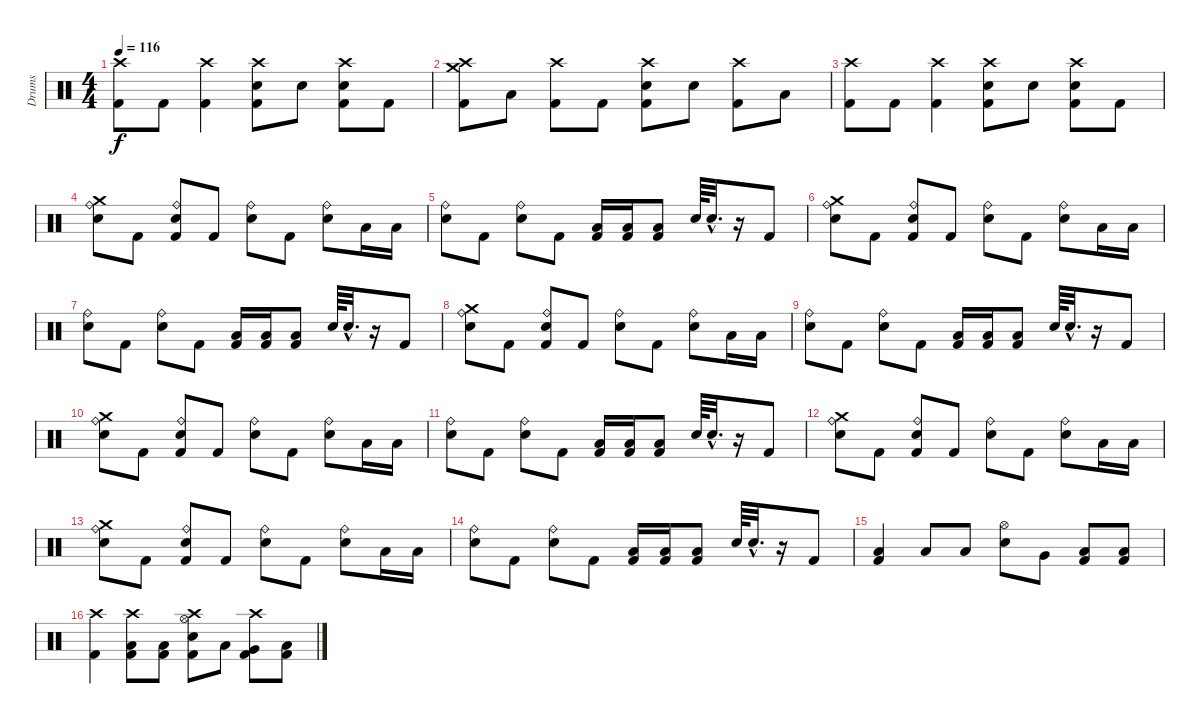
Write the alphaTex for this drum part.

\track ("Drums" "Drums") {instrument percussion}
\staff {score}
\articulation defaults
\ts (4 4)
\tempo 116
\clef neutral
\ks c
("Crash high (hit)" "Kick (hit) 2").8{dy f} "Kick (hit) 2".8 ("Crash high (hit)" "Kick (hit) 2").4 ("Crash high (hit)" "Electric Snare (hit)" "Kick (hit) 2").8 "Electric Snare (hit)".8 ("Crash high (hit)" "Electric Snare (hit)" "Kick (hit) 2").8 "Kick (hit) 2".8 |
("Crash medium (hit)" "Crash high (hit)" "Kick (hit) 2").8 "Low Floor Tom (hit)".8 ("Crash high (hit)" "Kick (hit) 2").8 "Kick (hit) 2".8 ("Crash high (hit)" "Electric Snare (hit)" "Kick (hit) 2").8 "Electric Snare (hit)".8 ("Crash high (hit)" "Kick (hit) 2").8 "Low Floor Tom (hit)".8 |
("Crash high (hit)" "Kick (hit) 2").8 "Kick (hit) 2".8 ("Crash high (hit)" "Kick (hit) 2").4 ("Crash high (hit)" "Electric Snare (hit)" "Kick (hit) 2").8 "Electric Snare (hit)".8 ("Crash high (hit)" "Electric Snare (hit)" "Kick (hit) 2").8 "Kick (hit) 2".8 |
("Crash medium (hit)" "Ride (bell)" "Snare (hit) 2").8 "Kick (hit) 2".8 ("Ride (bell)" "Snare (hit) 2" "Kick (hit) 2").8 "Kick (hit) 2".8 ("Ride (bell)" "Snare (hit) 2").8 "Kick (hit) 2".8 ("Ride (bell)" "Snare (hit) 2").8 "Low Floor Tom (hit)".16 "Low Floor Tom (hit)".16 |
("Ride (bell)" "Snare (hit) 2").8 "Kick (hit) 2".8 ("Ride (bell)" "Snare (hit) 2").8 "Kick (hit) 2".8 ("Low Floor Tom (hit)" "Kick (hit) 2").16 ("Low Floor Tom (hit)" "Kick (hit) 2").16 ("Low Floor Tom (hit)" "Kick (hit) 2").8 "Snare (hit) 2".64 "Electric Snare (hit)"{hac}.32{d} r.16 "Kick (hit) 2".8 |
("Crash medium (hit)" "Ride (bell)" "Snare (hit) 2").8 "Kick (hit) 2".8 ("Ride (bell)" "Snare (hit) 2" "Kick (hit) 2").8 "Kick (hit) 2".8 ("Ride (bell)" "Snare (hit) 2").8 "Kick (hit) 2".8 ("Ride (bell)" "Snare (hit) 2").8 "Low Floor Tom (hit)".16 "Low Floor Tom (hit)".16 |
("Ride (bell)" "Snare (hit) 2").8 "Kick (hit) 2".8 ("Ride (bell)" "Snare (hit) 2").8 "Kick (hit) 2".8 ("Low Floor Tom (hit)" "Kick (hit) 2").16 ("Low Floor Tom (hit)" "Kick (hit) 2").16 ("Low Floor Tom (hit)" "Kick (hit) 2").8 "Snare (hit) 2".64 "Electric Snare (hit)"{hac}.32{d} r.16 "Kick (hit) 2".8 |
("Crash medium (hit)" "Ride (bell)" "Snare (hit) 2").8 "Kick (hit) 2".8 ("Ride (bell)" "Snare (hit) 2" "Kick (hit) 2").8 "Kick (hit) 2".8 ("Ride (bell)" "Snare (hit) 2").8 "Kick (hit) 2".8 ("Ride (bell)" "Snare (hit) 2").8 "Low Floor Tom (hit)".16 "Low Floor Tom (hit)".16 |
("Ride (bell)" "Snare (hit) 2").8 "Kick (hit) 2".8 ("Ride (bell)" "Snare (hit) 2").8 "Kick (hit) 2".8 ("Low Floor Tom (hit)" "Kick (hit) 2").16 ("Low Floor Tom (hit)" "Kick (hit) 2").16 ("Low Floor Tom (hit)" "Kick (hit) 2").8 "Snare (hit) 2".64 "Electric Snare (hit)"{hac}.32{d} r.16 "Kick (hit) 2".8 |
("Crash medium (hit)" "Ride (bell)" "Snare (hit) 2").8 "Kick (hit) 2".8 ("Ride (bell)" "Snare (hit) 2" "Kick (hit) 2").8 "Kick (hit) 2".8 ("Ride (bell)" "Snare (hit) 2").8 "Kick (hit) 2".8 ("Ride (bell)" "Snare (hit) 2").8 "Low Floor Tom (hit)".16 "Low Floor Tom (hit)".16 |
("Ride (bell)" "Snare (hit) 2").8 "Kick (hit) 2".8 ("Ride (bell)" "Snare (hit) 2").8 "Kick (hit) 2".8 ("Low Floor Tom (hit)" "Kick (hit) 2").16 ("Low Floor Tom (hit)" "Kick (hit) 2").16 ("Low Floor Tom (hit)" "Kick (hit) 2").8 "Snare (hit) 2".64 "Electric Snare (hit)"{hac}.32{d} r.16 "Kick (hit) 2".8 |
("Crash medium (hit)" "Ride (bell)" "Snare (hit) 2").8 "Kick (hit) 2".8 ("Ride (bell)" "Snare (hit) 2" "Kick (hit) 2").8 "Kick (hit) 2".8 ("Ride (bell)" "Snare (hit) 2").8 "Kick (hit) 2".8 ("Ride (bell)" "Snare (hit) 2").8 "Low Floor Tom (hit)".16 "Low Floor Tom (hit)".16 |
("Crash medium (hit)" "Ride (bell)" "Snare (hit) 2").8 "Kick (hit) 2".8 ("Ride (bell)" "Snare (hit) 2" "Kick (hit) 2").8 "Kick (hit) 2".8 ("Ride (bell)" "Snare (hit) 2").8 "Kick (hit) 2".8 ("Ride (bell)" "Snare (hit) 2").8 "Low Floor Tom (hit)".16 "Low Floor Tom (hit)".16 |
("Ride (bell)" "Snare (hit) 2").8 "Kick (hit) 2".8 ("Ride (bell)" "Snare (hit) 2").8 "Kick (hit) 2".8 ("Low Floor Tom (hit)" "Kick (hit) 2").16 ("Low Floor Tom (hit)" "Kick (hit) 2").16 ("Low Floor Tom (hit)" "Kick (hit) 2").8 "Snare (hit) 2".64 "Electric Snare (hit)"{hac}.32{d} r.16 "Kick (hit) 2".8 |
("Low Floor Tom (hit)" "Kick (hit) 2").4 "Low Floor Tom (hit)".8 "Low Floor Tom (hit)".8 ("Hi-Hat (open)" "Electric Snare (hit)").8 "Very Low Tom (hit)".8 ("Low Floor Tom (hit)" "Kick (hit) 2").8 ("Low Floor Tom (hit)" "Kick (hit) 2").8 |
("Crash high (hit)" "Kick (hit) 2").4 ("Crash high (hit)" "Low Floor Tom (hit)" "Kick (hit) 2").8 ("Low Floor Tom (hit)" "Kick (hit) 2").8 ("Crash high (hit)" "Hi-Hat (open)" "Electric Snare (hit)" "Kick (hit) 2").8 "Low Floor Tom (hit)".8 ("Crash high (hit)" "Very Low Tom (hit)" "Kick (hit) 2").8 ("Low Floor Tom (hit)" "Kick (hit) 2").8
